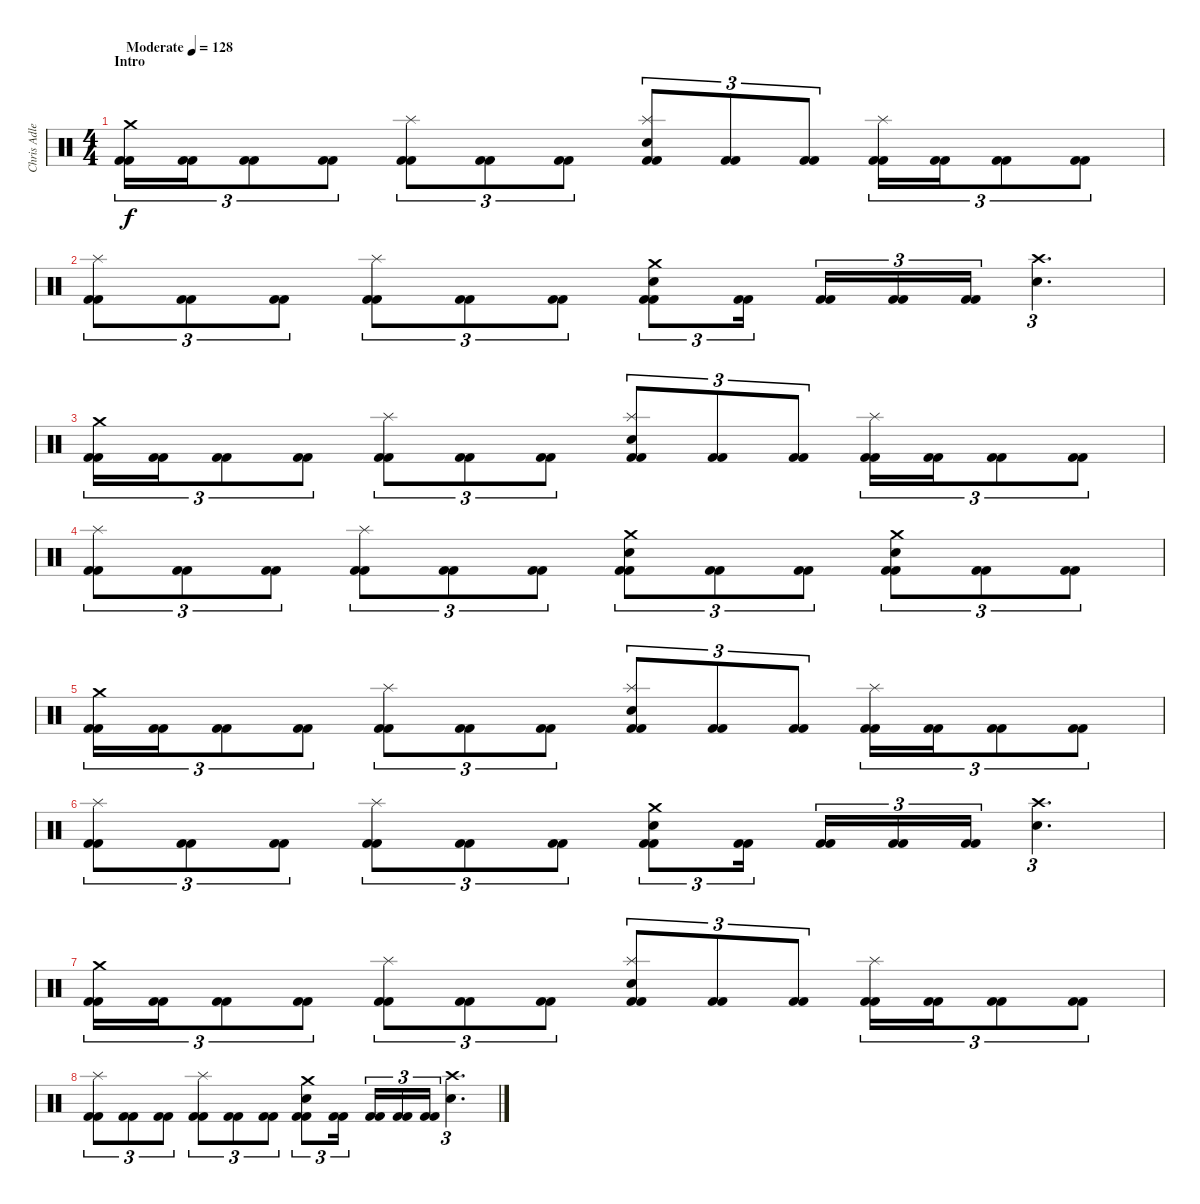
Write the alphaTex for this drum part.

\track ("Chris Adler" "Chris Adle") {instrument percussion}
\staff {score}
\articulation defaults
\ts (4 4)
\section ("" "Intro")
\tempo (128 "Moderate")
\clef neutral
\ks c
("Crash medium (hit)" "Kick (hit) 2" "Kick (hit) 2").16{tu (3 2) dy f} ("Kick (hit) 2" "Kick (hit) 2").16{tu (3 2)} ("Kick (hit) 2" "Kick (hit) 2").8{tu (3 2)} ("Kick (hit) 2" "Kick (hit) 2").8{tu (3 2)} ("Splash (hit)" "Kick (hit) 2" "Kick (hit) 2").8{tu (3 2)} ("Kick (hit) 2" "Kick (hit) 2").8{tu (3 2)} ("Kick (hit) 2" "Kick (hit) 2").8{tu (3 2)} ("Splash (hit)" "Electric Snare (hit)" "Kick (hit) 2" "Kick (hit) 2").8{tu (3 2)} ("Kick (hit) 2" "Kick (hit) 2").8{tu (3 2)} ("Kick (hit) 2" "Kick (hit) 2").8{tu (3 2)} ("Splash (hit)" "Kick (hit) 2" "Kick (hit) 2").16{tu (3 2)} ("Kick (hit) 2" "Kick (hit) 2").16{tu (3 2)} ("Kick (hit) 2" "Kick (hit) 2").8{tu (3 2)} ("Kick (hit) 2" "Kick (hit) 2").8{tu (3 2)} |
("Splash (hit)" "Kick (hit) 2" "Kick (hit) 2").8{tu (3 2)} ("Kick (hit) 2" "Kick (hit) 2").8{tu (3 2)} ("Kick (hit) 2" "Kick (hit) 2").8{tu (3 2)} ("Splash (hit)" "Kick (hit) 2" "Kick (hit) 2").8{tu (3 2)} ("Kick (hit) 2" "Kick (hit) 2").8{tu (3 2)} ("Kick (hit) 2" "Kick (hit) 2").8{tu (3 2)} ("Crash medium (hit)" "Electric Snare (hit)" "Kick (hit) 2" "Kick (hit) 2").8{tu (3 2)} ("Kick (hit) 2" "Kick (hit) 2").16{tu (3 2) beam splitsecondary} ("Kick (hit) 2" "Kick (hit) 2").16{tu (3 2)} ("Kick (hit) 2" "Kick (hit) 2").16{tu (3 2)} ("Kick (hit) 2" "Kick (hit) 2").16{tu (3 2)} ("Crash high (hit)" "Electric Snare (hit)").4{d tu (3 2)} |
("Crash medium (hit)" "Kick (hit) 2" "Kick (hit) 2").16{tu (3 2)} ("Kick (hit) 2" "Kick (hit) 2").16{tu (3 2)} ("Kick (hit) 2" "Kick (hit) 2").8{tu (3 2)} ("Kick (hit) 2" "Kick (hit) 2").8{tu (3 2)} ("Splash (hit)" "Kick (hit) 2" "Kick (hit) 2").8{tu (3 2)} ("Kick (hit) 2" "Kick (hit) 2").8{tu (3 2)} ("Kick (hit) 2" "Kick (hit) 2").8{tu (3 2)} ("Splash (hit)" "Electric Snare (hit)" "Kick (hit) 2" "Kick (hit) 2").8{tu (3 2)} ("Kick (hit) 2" "Kick (hit) 2").8{tu (3 2)} ("Kick (hit) 2" "Kick (hit) 2").8{tu (3 2)} ("Splash (hit)" "Kick (hit) 2" "Kick (hit) 2").16{tu (3 2)} ("Kick (hit) 2" "Kick (hit) 2").16{tu (3 2)} ("Kick (hit) 2" "Kick (hit) 2").8{tu (3 2)} ("Kick (hit) 2" "Kick (hit) 2").8{tu (3 2)} |
("Splash (hit)" "Kick (hit) 2" "Kick (hit) 2").8{tu (3 2)} ("Kick (hit) 2" "Kick (hit) 2").8{tu (3 2)} ("Kick (hit) 2" "Kick (hit) 2").8{tu (3 2)} ("Splash (hit)" "Kick (hit) 2" "Kick (hit) 2").8{tu (3 2)} ("Kick (hit) 2" "Kick (hit) 2").8{tu (3 2)} ("Kick (hit) 2" "Kick (hit) 2").8{tu (3 2)} ("Crash medium (hit)" "Electric Snare (hit)" "Kick (hit) 2" "Kick (hit) 2").8{tu (3 2)} ("Kick (hit) 2" "Kick (hit) 2").8{tu (3 2)} ("Kick (hit) 2" "Kick (hit) 2").8{tu (3 2)} ("Crash medium (hit)" "Electric Snare (hit)" "Kick (hit) 2" "Kick (hit) 2").8{tu (3 2)} ("Kick (hit) 2" "Kick (hit) 2").8{tu (3 2)} ("Kick (hit) 2" "Kick (hit) 2").8{tu (3 2)} |
("Crash medium (hit)" "Kick (hit) 2" "Kick (hit) 2").16{tu (3 2)} ("Kick (hit) 2" "Kick (hit) 2").16{tu (3 2)} ("Kick (hit) 2" "Kick (hit) 2").8{tu (3 2)} ("Kick (hit) 2" "Kick (hit) 2").8{tu (3 2)} ("Splash (hit)" "Kick (hit) 2" "Kick (hit) 2").8{tu (3 2)} ("Kick (hit) 2" "Kick (hit) 2").8{tu (3 2)} ("Kick (hit) 2" "Kick (hit) 2").8{tu (3 2)} ("Splash (hit)" "Electric Snare (hit)" "Kick (hit) 2" "Kick (hit) 2").8{tu (3 2)} ("Kick (hit) 2" "Kick (hit) 2").8{tu (3 2)} ("Kick (hit) 2" "Kick (hit) 2").8{tu (3 2)} ("Splash (hit)" "Kick (hit) 2" "Kick (hit) 2").16{tu (3 2)} ("Kick (hit) 2" "Kick (hit) 2").16{tu (3 2)} ("Kick (hit) 2" "Kick (hit) 2").8{tu (3 2)} ("Kick (hit) 2" "Kick (hit) 2").8{tu (3 2)} |
("Splash (hit)" "Kick (hit) 2" "Kick (hit) 2").8{tu (3 2)} ("Kick (hit) 2" "Kick (hit) 2").8{tu (3 2)} ("Kick (hit) 2" "Kick (hit) 2").8{tu (3 2)} ("Splash (hit)" "Kick (hit) 2" "Kick (hit) 2").8{tu (3 2)} ("Kick (hit) 2" "Kick (hit) 2").8{tu (3 2)} ("Kick (hit) 2" "Kick (hit) 2").8{tu (3 2)} ("Crash medium (hit)" "Electric Snare (hit)" "Kick (hit) 2" "Kick (hit) 2").8{tu (3 2)} ("Kick (hit) 2" "Kick (hit) 2").16{tu (3 2) beam splitsecondary} ("Kick (hit) 2" "Kick (hit) 2").16{tu (3 2)} ("Kick (hit) 2" "Kick (hit) 2").16{tu (3 2)} ("Kick (hit) 2" "Kick (hit) 2").16{tu (3 2)} ("Crash high (hit)" "Electric Snare (hit)").4{d tu (3 2)} |
("Crash medium (hit)" "Kick (hit) 2" "Kick (hit) 2").16{tu (3 2)} ("Kick (hit) 2" "Kick (hit) 2").16{tu (3 2)} ("Kick (hit) 2" "Kick (hit) 2").8{tu (3 2)} ("Kick (hit) 2" "Kick (hit) 2").8{tu (3 2)} ("Splash (hit)" "Kick (hit) 2" "Kick (hit) 2").8{tu (3 2)} ("Kick (hit) 2" "Kick (hit) 2").8{tu (3 2)} ("Kick (hit) 2" "Kick (hit) 2").8{tu (3 2)} ("Splash (hit)" "Electric Snare (hit)" "Kick (hit) 2" "Kick (hit) 2").8{tu (3 2)} ("Kick (hit) 2" "Kick (hit) 2").8{tu (3 2)} ("Kick (hit) 2" "Kick (hit) 2").8{tu (3 2)} ("Splash (hit)" "Kick (hit) 2" "Kick (hit) 2").16{tu (3 2)} ("Kick (hit) 2" "Kick (hit) 2").16{tu (3 2)} ("Kick (hit) 2" "Kick (hit) 2").8{tu (3 2)} ("Kick (hit) 2" "Kick (hit) 2").8{tu (3 2)} |
("Splash (hit)" "Kick (hit) 2" "Kick (hit) 2").8{tu (3 2)} ("Kick (hit) 2" "Kick (hit) 2").8{tu (3 2)} ("Kick (hit) 2" "Kick (hit) 2").8{tu (3 2)} ("Splash (hit)" "Kick (hit) 2" "Kick (hit) 2").8{tu (3 2)} ("Kick (hit) 2" "Kick (hit) 2").8{tu (3 2)} ("Kick (hit) 2" "Kick (hit) 2").8{tu (3 2)} ("Crash medium (hit)" "Electric Snare (hit)" "Kick (hit) 2" "Kick (hit) 2").8{tu (3 2)} ("Kick (hit) 2" "Kick (hit) 2").16{tu (3 2) beam splitsecondary} ("Kick (hit) 2" "Kick (hit) 2").16{tu (3 2)} ("Kick (hit) 2" "Kick (hit) 2").16{tu (3 2)} ("Kick (hit) 2" "Kick (hit) 2").16{tu (3 2)} ("Crash high (hit)" "Electric Snare (hit)").4{d tu (3 2)}
